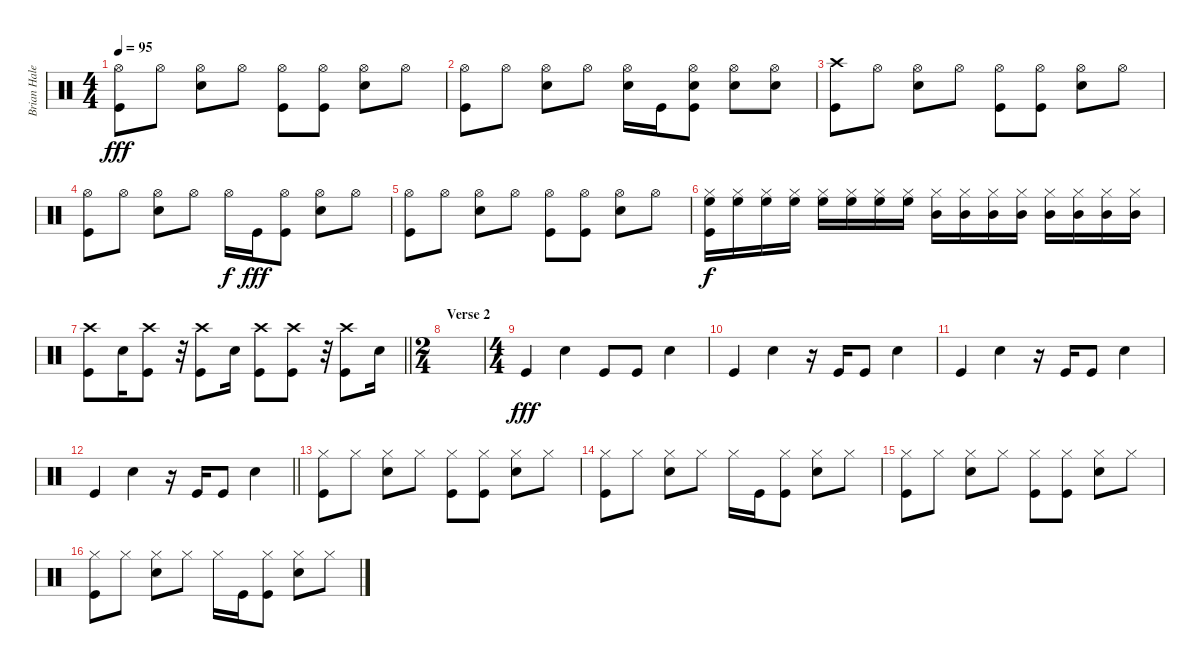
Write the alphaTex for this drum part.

\track ("Brian Haley" "Brian Hale") {instrument percussion}
\staff {score}
\articulation defaults
\ts (4 4)
\tempo 95
\clef neutral
\ks c
("Hi-Hat (open)" "Kick (hit)").8{dy fff} "Hi-Hat (open)".8 ("Hi-Hat (open)" "Hand Clap (hit)").8 "Hi-Hat (open)".8 ("Hi-Hat (open)" "Kick (hit)").8 ("Hi-Hat (open)" "Kick (hit)").8 ("Hi-Hat (open)" "Hand Clap (hit)").8 "Hi-Hat (open)".8 |
("Hi-Hat (open)" "Kick (hit)").8 "Hi-Hat (open)".8 ("Hi-Hat (open)" "Hand Clap (hit)").8 "Hi-Hat (open)".8 ("Hi-Hat (open)" "Snare (hit) 2").16 "Kick (hit)".16 ("Hi-Hat (open)" "Kick (hit)" "Snare (hit) 2").8 ("Hi-Hat (open)" "Hand Clap (hit)").8 ("Hi-Hat (open)" "Snare (hit) 2").8 |
("Crash high (hit)" "Kick (hit)").8 "Hi-Hat (open)".8 ("Hi-Hat (open)" "Hand Clap (hit)").8 "Hi-Hat (open)".8 ("Hi-Hat (open)" "Kick (hit)").8 ("Hi-Hat (open)" "Kick (hit)").8 ("Hi-Hat (open)" "Hand Clap (hit)").8 "Hi-Hat (open)".8 |
("Hi-Hat (open)" "Kick (hit)").8 "Hi-Hat (open)".8 ("Hi-Hat (open)" "Hand Clap (hit)").8 "Hi-Hat (open)".8 "Hi-Hat (open)".16{dy f} "Kick (hit)".16{dy fff} ("Hi-Hat (open)" "Kick (hit)").8 ("Hi-Hat (open)" "Hand Clap (hit)").8 "Hi-Hat (open)".8 |
("Hi-Hat (open)" "Kick (hit)").8 "Hi-Hat (open)".8 ("Hi-Hat (open)" "Hand Clap (hit)").8 "Hi-Hat (open)".8 ("Hi-Hat (open)" "Kick (hit)").8 ("Hi-Hat (open)" "Kick (hit)").8 ("Hi-Hat (open)" "Hand Clap (hit)").8 "Hi-Hat (open)".8 |
("High Floor Tom (hit)" "Hi-Hat (closed)" "Kick (hit)").16{dy f} ("High Floor Tom (hit)" "Hi-Hat (closed)").16 ("High Floor Tom (hit)" "Hi-Hat (closed)").16 ("High Floor Tom (hit)" "Hi-Hat (closed)").16 ("High Floor Tom (hit)" "Hi-Hat (closed)").16 ("High Floor Tom (hit)" "Hi-Hat (closed)").16 ("High Floor Tom (hit)" "Hi-Hat (closed)").16 ("High Floor Tom (hit)" "Hi-Hat (closed)").16 ("Mid Tom (hit)" "Hi-Hat (closed)").16 ("Mid Tom (hit)" "Hi-Hat (closed)").16 ("Mid Tom (hit)" "Hi-Hat (closed)").16 ("Mid Tom (hit)" "Hi-Hat (closed)").16 ("Mid Tom (hit)" "Hi-Hat (closed)").16 ("Mid Tom (hit)" "Hi-Hat (closed)").16 ("Mid Tom (hit)" "Hi-Hat (closed)").16 ("Mid Tom (hit)" "Hi-Hat (closed)").16 |
\barLineRight lightlight
("Crash high (hit)" "Kick (hit)").8 "Snare (hit) 2".16 ("Crash high (hit)" "Kick (hit)").8 r.32 ("Crash high (hit)" "Kick (hit)").8 "Snare (hit) 2".16 ("Crash high (hit)" "Kick (hit)").8 ("Crash high (hit)" "Kick (hit)").8 r.32 ("Crash high (hit)" "Kick (hit)").8 "Snare (hit) 2".16 |
\ts (2 4)
\section ("" "Verse 2")
|
\ts (4 4)
"Kick (hit)".4{dy fff} "Hand Clap (hit)".4 "Kick (hit)".8 "Kick (hit)".8 "Hand Clap (hit)".4 |
"Kick (hit)".4 "Hand Clap (hit)".4 r.16 "Kick (hit)".16 "Kick (hit)".8 "Hand Clap (hit)".4 |
"Kick (hit)".4 "Hand Clap (hit)".4 r.16 "Kick (hit)".16 "Kick (hit)".8 "Hand Clap (hit)".4 |
\barLineRight lightlight "Kick (hit)".4 "Hand Clap (hit)".4
r.16 "Kick (hit)".16 "Kick (hit)".8 "Hand Clap (hit)".4 |
("Hi-Hat (closed)" "Kick (hit)").8 "Hi-Hat (closed)".8 ("Hi-Hat (closed)" "Hand Clap (hit)").8 "Hi-Hat (closed)".8 ("Hi-Hat (closed)" "Kick (hit)").8 ("Hi-Hat (closed)" "Kick (hit)").8 ("Hi-Hat (closed)" "Hand Clap (hit)").8 "Hi-Hat (closed)".8 |
("Hi-Hat (closed)" "Kick (hit)").8 "Hi-Hat (closed)".8 ("Hi-Hat (closed)" "Hand Clap (hit)").8 "Hi-Hat (closed)".8 "Hi-Hat (closed)".16 "Kick (hit)".16 ("Hi-Hat (closed)" "Kick (hit)").8 ("Hi-Hat (closed)" "Hand Clap (hit)").8 "Hi-Hat (closed)".8 |
("Hi-Hat (closed)" "Kick (hit)").8 "Hi-Hat (closed)".8 ("Hi-Hat (closed)" "Hand Clap (hit)").8 "Hi-Hat (closed)".8 ("Hi-Hat (closed)" "Kick (hit)").8 ("Hi-Hat (closed)" "Kick (hit)").8 ("Hi-Hat (closed)" "Hand Clap (hit)").8 "Hi-Hat (closed)".8 |
("Hi-Hat (closed)" "Kick (hit)").8 "Hi-Hat (closed)".8 ("Hi-Hat (closed)" "Hand Clap (hit)").8 "Hi-Hat (closed)".8 "Hi-Hat (closed)".16 "Kick (hit)".16 ("Hi-Hat (closed)" "Kick (hit)").8 ("Hi-Hat (closed)" "Hand Clap (hit)").8 "Hi-Hat (closed)".8
